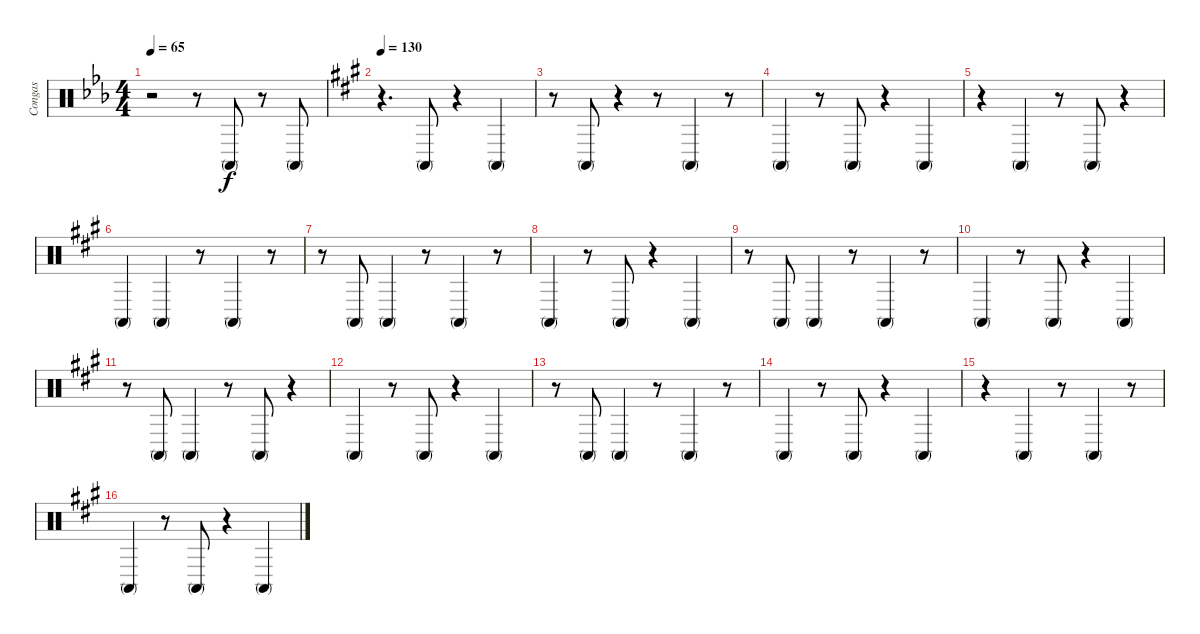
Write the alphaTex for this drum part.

\track ("Congas" "Congas") {instrument percussion}
\staff {score}
\articulation defaults
\ts (4 4)
\tempo 65
\clef neutral
\ks eb
r.2{dy f volume 7} r.8 "Conga high (mute)".8 r.8 "Conga high (mute)".8 |
\tempo 130
\ks a
r.4{d} "Conga high (mute)".8 r.4 "Conga high (mute)".4 |
r.8 "Conga high (mute)".8 r.4 r.8 "Conga high (mute)".4 r.8 |
"Conga high (mute)".4 r.8 "Conga high (mute)".8 r.4 "Conga high (mute)".4 |
r.4 "Conga high (mute)".4 r.8 "Conga high (mute)".8 r.4 |
"Conga high (mute)".4 "Conga high (mute)".4 r.8 "Conga high (mute)".4 r.8 |
r.8 "Conga high (mute)".8 "Conga high (mute)".4 r.8 "Conga high (mute)".4 r.8 |
"Conga high (mute)".4 r.8 "Conga high (mute)".8 r.4 "Conga high (mute)".4 |
r.8 "Conga high (mute)".8 "Conga high (mute)".4 r.8 "Conga high (mute)".4 r.8 |
"Conga high (mute)".4 r.8 "Conga high (mute)".8 r.4 "Conga high (mute)".4 |
r.8 "Conga high (mute)".8 "Conga high (mute)".4 r.8 "Conga high (mute)".8 r.4 |
"Conga high (mute)".4 r.8 "Conga high (mute)".8 r.4 "Conga high (mute)".4 |
r.8 "Conga high (mute)".8 "Conga high (mute)".4 r.8 "Conga high (mute)".4 r.8 |
"Conga high (mute)".4 r.8 "Conga high (mute)".8 r.4 "Conga high (mute)".4 |
r.4 "Conga high (mute)".4 r.8 "Conga high (mute)".4 r.8 |
"Conga high (mute)".4 r.8 "Conga high (mute)".8 r.4 "Conga high (mute)".4
